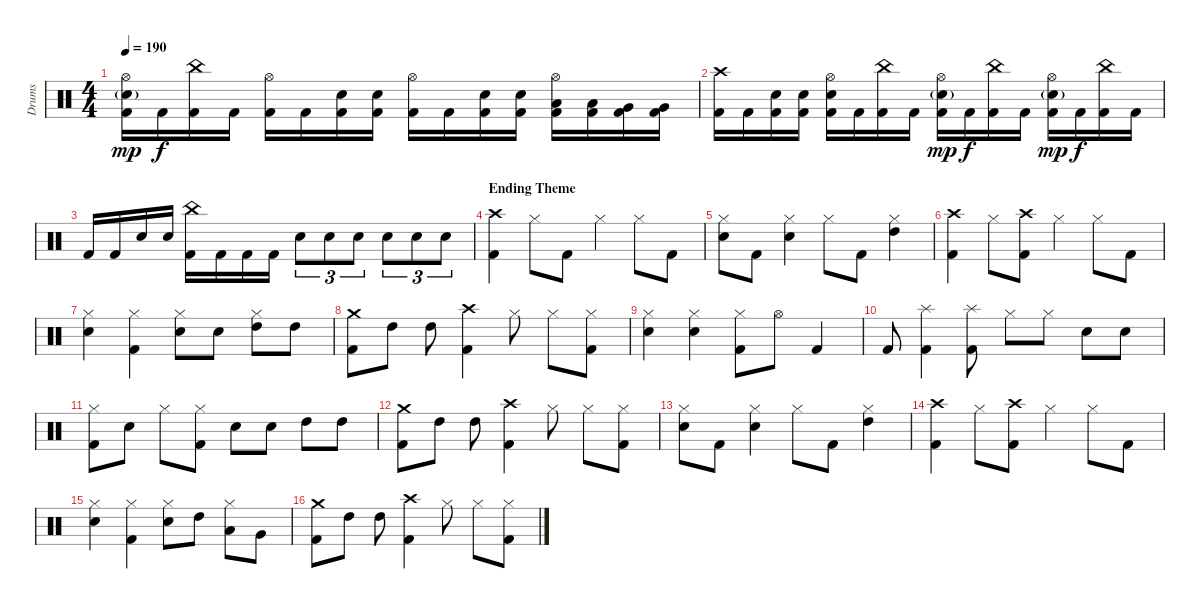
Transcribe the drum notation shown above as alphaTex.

\track ("Drums" "Drums") {instrument percussion}
\staff {score}
\articulation defaults
\ts (4 4)
\tempo 190
\clef neutral
\ks c
("Hi-Hat (open)" "Snare (hit) 2"{g} "Kick (hit) 2").16{dy mp} "Kick (hit) 2".16{dy f} ("China (hit)" "Kick (hit) 2").16 "Kick (hit) 2".16 ("Hi-Hat (open)" "Kick (hit) 2").16 "Kick (hit) 2".16 ("Snare (hit) 2" "Kick (hit) 2").16 ("Snare (hit) 2" "Kick (hit) 2").16 ("Hi-Hat (open)" "Kick (hit) 2").16 "Kick (hit) 2".16 ("Snare (hit) 2" "Kick (hit) 2").16 ("Snare (hit) 2" "Kick (hit) 2").16 ("Hi-Hat (open)" "Low Tom (hit)" "Kick (hit) 2").16 ("Low Tom (hit)" "Kick (hit) 2").16 ("Very Low Tom (hit)" "Kick (hit) 2").16 ("Very Low Tom (hit)" "Kick (hit) 2").16 |
("Crash high (hit)" "Kick (hit) 2").16 "Kick (hit) 2".16 ("Snare (hit) 2" "Kick (hit) 2").16 ("Snare (hit) 2" "Kick (hit) 2").16 ("Hi-Hat (open)" "Snare (hit) 2" "Kick (hit) 2").16 "Kick (hit) 2".16 ("China (hit)" "Kick (hit) 2").16 "Kick (hit) 2".16 ("Hi-Hat (open)" "Snare (hit) 2"{g} "Kick (hit) 2").16{dy mp} "Kick (hit) 2".16{dy f} ("China (hit)" "Kick (hit) 2").16 "Kick (hit) 2".16 ("Hi-Hat (open)" "Snare (hit) 2"{g} "Kick (hit) 2").16{dy mp} "Kick (hit) 2".16{dy f} ("China (hit)" "Kick (hit) 2").16 "Kick (hit) 2".16 |
"Kick (hit) 2".16 "Kick (hit) 2".16 "Snare (hit) 2".16 "Snare (hit) 2".16 ("China (hit)" "Kick (hit) 2").16 "Kick (hit) 2".16 "Kick (hit) 2".16 "Kick (hit) 2".16 "Snare (hit) 2".8{tu (3 2)} "Snare (hit) 2".8{tu (3 2)} "Snare (hit) 2".8{tu (3 2)} "Snare (hit) 2".8{tu (3 2)} "Snare (hit) 2".8{tu (3 2)} "Snare (hit) 2".8{tu (3 2)} |
\section ("" "Ending Theme")
("Crash high (hit)" "Kick (hit) 2").4 "Hi-Hat (closed)".8 "Kick (hit) 2".8 "Hi-Hat (closed)".4 "Hi-Hat (closed)".8 "Kick (hit) 2".8 |
("Hi-Hat (closed)" "Snare (hit) 2").8 "Kick (hit) 2".8 ("Hi-Hat (closed)" "Snare (hit) 2").4 "Hi-Hat (closed)".8 "Kick (hit) 2".8 ("Hi-Hat (closed)" "High Tom (hit)").4 |
("Crash high (hit)" "Kick (hit) 2").4 "Hi-Hat (closed)".8 ("Crash high (hit)" "Kick (hit) 2").8 "Hi-Hat (closed)".4 "Hi-Hat (closed)".8 "Kick (hit) 2".8 |
("Hi-Hat (closed)" "Snare (hit) 2").4 ("Hi-Hat (closed)" "Kick (hit) 2").4 ("Hi-Hat (closed)" "Snare (hit) 2").8 "Snare (hit) 2".8 ("Hi-Hat (closed)" "High Tom (hit)").8 "High Tom (hit)".8 |
("Crash medium (hit)" "Kick (hit) 2").8 "High Tom (hit)".8 "High Tom (hit)".8 ("Crash high (hit)" "Kick (hit) 2").4 "Hi-Hat (closed)".8 "Hi-Hat (closed)".8 ("Hi-Hat (closed)" "Kick (hit) 2").8 |
("Hi-Hat (closed)" "Snare (hit) 2").4 ("Hi-Hat (closed)" "Snare (hit) 2").4 ("Hi-Hat (closed)" "Kick (hit) 2").8 "Hi-Hat (open)".8 "Kick (hit) 2".4 |
"Kick (hit) 2".8 ("Splash (hit)" "Kick (hit) 2").4 ("Splash (hit)" "Kick (hit) 2").8 "Hi-Hat (closed)".8 "Hi-Hat (closed)".8 "Snare (hit) 2".8 "Snare (hit) 2".8 |
("Hi-Hat (closed)" "Kick (hit) 2").8 "Snare (hit) 2".8 "Hi-Hat (closed)".8 ("Hi-Hat (closed)" "Kick (hit) 2").8 "Snare (hit) 2".8 "Snare (hit) 2".8 "High Tom (hit)".8 "High Tom (hit)".8 |
("Crash medium (hit)" "Kick (hit) 2").8 "High Tom (hit)".8 "High Tom (hit)".8 ("Crash high (hit)" "Kick (hit) 2").4 "Hi-Hat (closed)".8 "Hi-Hat (closed)".8 ("Hi-Hat (closed)" "Kick (hit) 2").8 |
("Hi-Hat (closed)" "Snare (hit) 2").8 "Kick (hit) 2".8 ("Hi-Hat (closed)" "Snare (hit) 2").4 "Hi-Hat (closed)".8 "Kick (hit) 2".8 ("Hi-Hat (closed)" "High Tom (hit)").4 |
("Crash high (hit)" "Kick (hit) 2").4 "Hi-Hat (closed)".8 ("Crash high (hit)" "Kick (hit) 2").8 "Hi-Hat (closed)".4 "Hi-Hat (closed)".8 "Kick (hit) 2".8 |
("Hi-Hat (closed)" "Snare (hit) 2").4 ("Hi-Hat (closed)" "Kick (hit) 2").4 ("Hi-Hat (closed)" "Snare (hit) 2").8 "High Tom (hit)".8 ("Hi-Hat (closed)" "Low Tom (hit)").8 "Very Low Tom (hit)".8 |
("Crash medium (hit)" "Kick (hit) 2").8 "High Tom (hit)".8 "High Tom (hit)".8 ("Crash high (hit)" "Kick (hit) 2").4 "Hi-Hat (closed)".8 "Hi-Hat (closed)".8 ("Hi-Hat (closed)" "Kick (hit) 2").8
